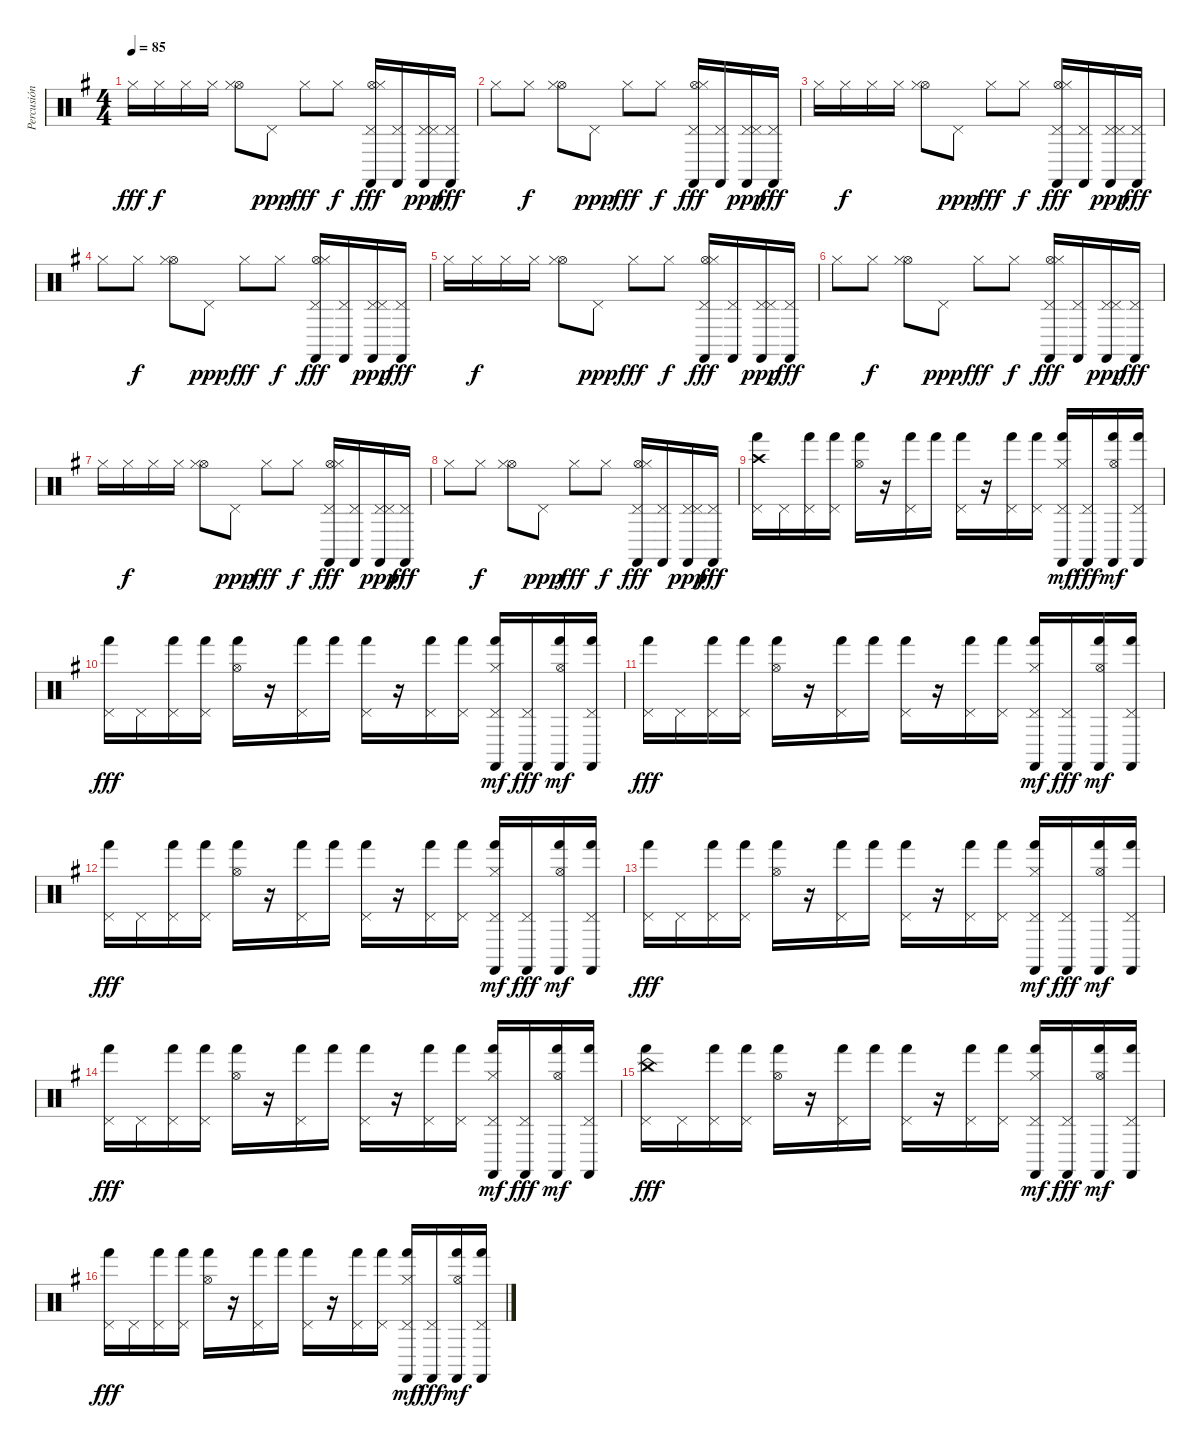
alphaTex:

\track ("Percusión" "Percusión") {instrument percussion}
\staff {score}
\articulation defaults
\ts (4 4)
\tempo 85
\clef neutral
\ks g "Hi-Hat (closed)".16{dy fff} "Hi-Hat (closed)".16{dy f} "Hi-Hat (closed)".16 "Hi-Hat (closed)".16
("Hi-Hat (open)" "Hi-Hat (closed)").8 "Pedal Hi-Hat (hit)".8{dy ppp} "Hi-Hat (closed)".8{dy fff} "Hi-Hat (closed)".8{dy f} ("Pedal Hi-Hat (hit)" "Castanets (hit)" "Hi-Hat (open)" "Hi-Hat (closed)").16{dy fff} ("Pedal Hi-Hat (hit)" "Castanets (hit)").16 ("Pedal Hi-Hat (hit)" "Castanets (hit)" "Pedal Hi-Hat (hit)").16{dy ppp} ("Pedal Hi-Hat (hit)" "Castanets (hit)").16{dy fff} |
"Hi-Hat (closed)".8 "Hi-Hat (closed)".8{dy f} ("Hi-Hat (open)" "Hi-Hat (closed)").8 "Pedal Hi-Hat (hit)".8{dy ppp} "Hi-Hat (closed)".8{dy fff} "Hi-Hat (closed)".8{dy f} ("Pedal Hi-Hat (hit)" "Castanets (hit)" "Hi-Hat (open)" "Hi-Hat (closed)").16{dy fff} ("Pedal Hi-Hat (hit)" "Castanets (hit)").16 ("Pedal Hi-Hat (hit)" "Castanets (hit)" "Pedal Hi-Hat (hit)").16{dy ppp} ("Pedal Hi-Hat (hit)" "Castanets (hit)").16{dy fff} |
"Hi-Hat (closed)".16 "Hi-Hat (closed)".16{dy f} "Hi-Hat (closed)".16 "Hi-Hat (closed)".16 ("Hi-Hat (open)" "Hi-Hat (closed)").8 "Pedal Hi-Hat (hit)".8{dy ppp} "Hi-Hat (closed)".8{dy fff} "Hi-Hat (closed)".8{dy f} ("Pedal Hi-Hat (hit)" "Castanets (hit)" "Hi-Hat (open)" "Hi-Hat (closed)").16{dy fff} ("Pedal Hi-Hat (hit)" "Castanets (hit)").16 ("Pedal Hi-Hat (hit)" "Castanets (hit)" "Pedal Hi-Hat (hit)").16{dy ppp} ("Pedal Hi-Hat (hit)" "Castanets (hit)").16{dy fff} |
"Hi-Hat (closed)".8 "Hi-Hat (closed)".8{dy f} ("Hi-Hat (open)" "Hi-Hat (closed)").8 "Pedal Hi-Hat (hit)".8{dy ppp} "Hi-Hat (closed)".8{dy fff} "Hi-Hat (closed)".8{dy f} ("Pedal Hi-Hat (hit)" "Castanets (hit)" "Hi-Hat (open)" "Hi-Hat (closed)").16{dy fff} ("Pedal Hi-Hat (hit)" "Castanets (hit)").16 ("Pedal Hi-Hat (hit)" "Castanets (hit)" "Pedal Hi-Hat (hit)").16{dy ppp} ("Pedal Hi-Hat (hit)" "Castanets (hit)").16{dy fff} |
"Hi-Hat (closed)".16 "Hi-Hat (closed)".16{dy f} "Hi-Hat (closed)".16 "Hi-Hat (closed)".16 ("Hi-Hat (open)" "Hi-Hat (closed)").8 "Pedal Hi-Hat (hit)".8{dy ppp} "Hi-Hat (closed)".8{dy fff} "Hi-Hat (closed)".8{dy f} ("Pedal Hi-Hat (hit)" "Castanets (hit)" "Hi-Hat (open)" "Hi-Hat (closed)").16{dy fff} ("Pedal Hi-Hat (hit)" "Castanets (hit)").16 ("Pedal Hi-Hat (hit)" "Castanets (hit)" "Pedal Hi-Hat (hit)").16{dy ppp} ("Pedal Hi-Hat (hit)" "Castanets (hit)").16{dy fff} |
"Hi-Hat (closed)".8 "Hi-Hat (closed)".8{dy f} ("Hi-Hat (open)" "Hi-Hat (closed)").8 "Pedal Hi-Hat (hit)".8{dy ppp} "Hi-Hat (closed)".8{dy fff} "Hi-Hat (closed)".8{dy f} ("Pedal Hi-Hat (hit)" "Castanets (hit)" "Hi-Hat (open)" "Hi-Hat (closed)").16{dy fff} ("Pedal Hi-Hat (hit)" "Castanets (hit)").16 ("Pedal Hi-Hat (hit)" "Castanets (hit)" "Pedal Hi-Hat (hit)").16{dy ppp} ("Pedal Hi-Hat (hit)" "Castanets (hit)").16{dy fff} |
"Hi-Hat (closed)".16 "Hi-Hat (closed)".16{dy f} "Hi-Hat (closed)".16 "Hi-Hat (closed)".16 ("Hi-Hat (open)" "Hi-Hat (closed)").8 "Pedal Hi-Hat (hit)".8{dy ppp} "Hi-Hat (closed)".8{dy fff} "Hi-Hat (closed)".8{dy f} ("Pedal Hi-Hat (hit)" "Castanets (hit)" "Hi-Hat (open)" "Hi-Hat (closed)").16{dy fff} ("Pedal Hi-Hat (hit)" "Castanets (hit)").16 ("Pedal Hi-Hat (hit)" "Castanets (hit)" "Pedal Hi-Hat (hit)").16{dy ppp} ("Pedal Hi-Hat (hit)" "Castanets (hit)").16{dy fff} |
"Hi-Hat (closed)".8 "Hi-Hat (closed)".8{dy f} ("Hi-Hat (open)" "Hi-Hat (closed)").8 "Pedal Hi-Hat (hit)".8{dy ppp} "Hi-Hat (closed)".8{dy fff} "Hi-Hat (closed)".8{dy f} ("Pedal Hi-Hat (hit)" "Castanets (hit)" "Hi-Hat (open)" "Hi-Hat (closed)").16{dy fff} ("Pedal Hi-Hat (hit)" "Castanets (hit)").16 ("Pedal Hi-Hat (hit)" "Castanets (hit)" "Pedal Hi-Hat (hit)").16{dy ppp} ("Pedal Hi-Hat (hit)" "Castanets (hit)").16{dy fff} |
("Pedal Hi-Hat (hit)" "Crash high (hit)" "Hand (hit)").16 "Pedal Hi-Hat (hit)".16 ("Pedal Hi-Hat (hit)" "Hand (hit)").16 ("Pedal Hi-Hat (hit)" "Hand (hit)").16 ("Hi-Hat (open)" "Hand (hit)").16 r.16 ("Pedal Hi-Hat (hit)" "Hand (hit)").16 "Hand (hit)".16 ("Pedal Hi-Hat (hit)" "Hand (hit)").16 r.16 ("Pedal Hi-Hat (hit)" "Hand (hit)").16 ("Pedal Hi-Hat (hit)" "Hand (hit)").16 ("Pedal Hi-Hat (hit)" "Castanets (hit)" "Hand (hit)" "Hi-Hat (closed)").16{dy mf} ("Pedal Hi-Hat (hit)" "Castanets (hit)").16{dy fff} ("Hi-Hat (open)" "Castanets (hit)" "Hand (hit)").16{dy mf} ("Pedal Hi-Hat (hit)" "Castanets (hit)" "Hand (hit)").16 |
("Pedal Hi-Hat (hit)" "Hand (hit)").16{dy fff} "Pedal Hi-Hat (hit)".16 ("Pedal Hi-Hat (hit)" "Hand (hit)").16 ("Pedal Hi-Hat (hit)" "Hand (hit)").16 ("Hi-Hat (open)" "Hand (hit)").16 r.16 ("Pedal Hi-Hat (hit)" "Hand (hit)").16 "Hand (hit)".16 ("Pedal Hi-Hat (hit)" "Hand (hit)").16 r.16 ("Pedal Hi-Hat (hit)" "Hand (hit)").16 ("Pedal Hi-Hat (hit)" "Hand (hit)").16 ("Pedal Hi-Hat (hit)" "Castanets (hit)" "Hand (hit)" "Hi-Hat (closed)").16{dy mf} ("Pedal Hi-Hat (hit)" "Castanets (hit)").16{dy fff} ("Hi-Hat (open)" "Castanets (hit)" "Hand (hit)").16{dy mf} ("Pedal Hi-Hat (hit)" "Castanets (hit)" "Hand (hit)").16 |
("Pedal Hi-Hat (hit)" "Hand (hit)").16{dy fff} "Pedal Hi-Hat (hit)".16 ("Pedal Hi-Hat (hit)" "Hand (hit)").16 ("Pedal Hi-Hat (hit)" "Hand (hit)").16 ("Hi-Hat (open)" "Hand (hit)").16 r.16 ("Pedal Hi-Hat (hit)" "Hand (hit)").16 "Hand (hit)".16 ("Pedal Hi-Hat (hit)" "Hand (hit)").16 r.16 ("Pedal Hi-Hat (hit)" "Hand (hit)").16 ("Pedal Hi-Hat (hit)" "Hand (hit)").16 ("Pedal Hi-Hat (hit)" "Castanets (hit)" "Hand (hit)" "Hi-Hat (closed)").16{dy mf} ("Pedal Hi-Hat (hit)" "Castanets (hit)").16{dy fff} ("Hi-Hat (open)" "Castanets (hit)" "Hand (hit)").16{dy mf} ("Pedal Hi-Hat (hit)" "Castanets (hit)" "Hand (hit)").16 |
("Pedal Hi-Hat (hit)" "Hand (hit)").16{dy fff} "Pedal Hi-Hat (hit)".16 ("Pedal Hi-Hat (hit)" "Hand (hit)").16 ("Pedal Hi-Hat (hit)" "Hand (hit)").16 ("Hi-Hat (open)" "Hand (hit)").16 r.16 ("Pedal Hi-Hat (hit)" "Hand (hit)").16 "Hand (hit)".16 ("Pedal Hi-Hat (hit)" "Hand (hit)").16 r.16 ("Pedal Hi-Hat (hit)" "Hand (hit)").16 ("Pedal Hi-Hat (hit)" "Hand (hit)").16 ("Pedal Hi-Hat (hit)" "Castanets (hit)" "Hand (hit)" "Hi-Hat (closed)").16{dy mf} ("Pedal Hi-Hat (hit)" "Castanets (hit)").16{dy fff} ("Hi-Hat (open)" "Castanets (hit)" "Hand (hit)").16{dy mf} ("Pedal Hi-Hat (hit)" "Castanets (hit)" "Hand (hit)").16 |
("Pedal Hi-Hat (hit)" "Hand (hit)").16{dy fff} "Pedal Hi-Hat (hit)".16 ("Pedal Hi-Hat (hit)" "Hand (hit)").16 ("Pedal Hi-Hat (hit)" "Hand (hit)").16 ("Hi-Hat (open)" "Hand (hit)").16 r.16 ("Pedal Hi-Hat (hit)" "Hand (hit)").16 "Hand (hit)".16 ("Pedal Hi-Hat (hit)" "Hand (hit)").16 r.16 ("Pedal Hi-Hat (hit)" "Hand (hit)").16 ("Pedal Hi-Hat (hit)" "Hand (hit)").16 ("Pedal Hi-Hat (hit)" "Castanets (hit)" "Hand (hit)" "Hi-Hat (closed)").16{dy mf} ("Pedal Hi-Hat (hit)" "Castanets (hit)").16{dy fff} ("Hi-Hat (open)" "Castanets (hit)" "Hand (hit)").16{dy mf} ("Pedal Hi-Hat (hit)" "Castanets (hit)" "Hand (hit)").16 |
("Pedal Hi-Hat (hit)" "Hand (hit)").16{dy fff} "Pedal Hi-Hat (hit)".16 ("Pedal Hi-Hat (hit)" "Hand (hit)").16 ("Pedal Hi-Hat (hit)" "Hand (hit)").16 ("Hi-Hat (open)" "Hand (hit)").16 r.16 ("Pedal Hi-Hat (hit)" "Hand (hit)").16 "Hand (hit)".16 ("Pedal Hi-Hat (hit)" "Hand (hit)").16 r.16 ("Pedal Hi-Hat (hit)" "Hand (hit)").16 ("Pedal Hi-Hat (hit)" "Hand (hit)").16 ("Pedal Hi-Hat (hit)" "Castanets (hit)" "Hand (hit)" "Hi-Hat (closed)").16{dy mf} ("Pedal Hi-Hat (hit)" "Castanets (hit)").16{dy fff} ("Hi-Hat (open)" "Castanets (hit)" "Hand (hit)").16{dy mf} ("Pedal Hi-Hat (hit)" "Castanets (hit)" "Hand (hit)").16 |
("Pedal Hi-Hat (hit)" "China (hit)" "Hand (hit)").16{dy fff} "Pedal Hi-Hat (hit)".16 ("Pedal Hi-Hat (hit)" "Hand (hit)").16 ("Pedal Hi-Hat (hit)" "Hand (hit)").16 ("Hi-Hat (open)" "Hand (hit)").16 r.16 ("Pedal Hi-Hat (hit)" "Hand (hit)").16 "Hand (hit)".16 ("Pedal Hi-Hat (hit)" "Hand (hit)").16 r.16 ("Pedal Hi-Hat (hit)" "Hand (hit)").16 ("Pedal Hi-Hat (hit)" "Hand (hit)").16 ("Pedal Hi-Hat (hit)" "Castanets (hit)" "Hand (hit)" "Hi-Hat (closed)").16{dy mf} ("Pedal Hi-Hat (hit)" "Castanets (hit)").16{dy fff} ("Hi-Hat (open)" "Castanets (hit)" "Hand (hit)").16{dy mf} ("Pedal Hi-Hat (hit)" "Castanets (hit)" "Hand (hit)").16 |
("Pedal Hi-Hat (hit)" "Hand (hit)").16{dy fff} "Pedal Hi-Hat (hit)".16 ("Pedal Hi-Hat (hit)" "Hand (hit)").16 ("Pedal Hi-Hat (hit)" "Hand (hit)").16 ("Hi-Hat (open)" "Hand (hit)").16 r.16 ("Pedal Hi-Hat (hit)" "Hand (hit)").16 "Hand (hit)".16 ("Pedal Hi-Hat (hit)" "Hand (hit)").16 r.16 ("Pedal Hi-Hat (hit)" "Hand (hit)").16 ("Pedal Hi-Hat (hit)" "Hand (hit)").16 ("Pedal Hi-Hat (hit)" "Castanets (hit)" "Hand (hit)" "Hi-Hat (closed)").16{dy mf} ("Pedal Hi-Hat (hit)" "Castanets (hit)").16{dy fff} ("Hi-Hat (open)" "Castanets (hit)" "Hand (hit)").16{dy mf} ("Pedal Hi-Hat (hit)" "Castanets (hit)" "Hand (hit)").16
